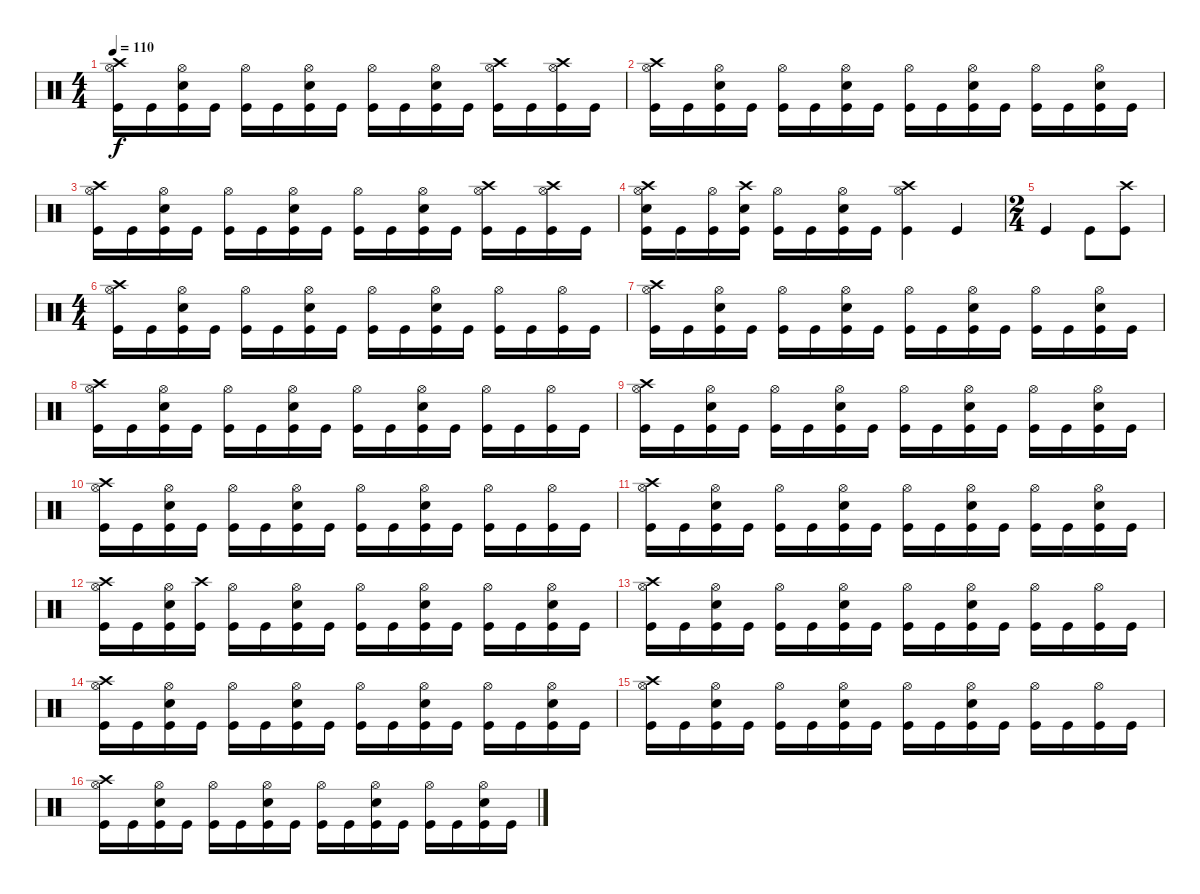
\track "" {instrument percussion}
\staff {score}
\articulation defaults
\ts (4 4)
\tempo 110
\clef neutral
\ks c
("Crash high (hit)" "Kick (hit)" "Hi-Hat (open)").16{dy f} "Kick (hit)".16 ("Kick (hit)" "Electric Snare (hit)" "Hi-Hat (open)").16 "Kick (hit)".16 ("Kick (hit)" "Hi-Hat (open)").16 "Kick (hit)".16 ("Kick (hit)" "Electric Snare (hit)" "Hi-Hat (open)").16 "Kick (hit)".16 ("Hi-Hat (open)" "Kick (hit)").16 "Kick (hit)".16 ("Kick (hit)" "Hi-Hat (open)" "Electric Snare (hit)").16 "Kick (hit)".16 ("Hi-Hat (open)" "Kick (hit)" "Crash high (hit)").16 "Kick (hit)".16 ("Kick (hit)" "Hi-Hat (open)" "Crash high (hit)").16 "Kick (hit)".16 |
("Crash high (hit)" "Kick (hit)" "Hi-Hat (open)").16 "Kick (hit)".16 ("Kick (hit)" "Electric Snare (hit)" "Hi-Hat (open)").16 "Kick (hit)".16 ("Kick (hit)" "Hi-Hat (open)").16 "Kick (hit)".16 ("Kick (hit)" "Electric Snare (hit)" "Hi-Hat (open)").16 "Kick (hit)".16 ("Hi-Hat (open)" "Kick (hit)").16 "Kick (hit)".16 ("Kick (hit)" "Hi-Hat (open)" "Electric Snare (hit)").16 "Kick (hit)".16 ("Hi-Hat (open)" "Kick (hit)").16 "Kick (hit)".16 ("Kick (hit)" "Hi-Hat (open)" "Electric Snare (hit)").16 "Kick (hit)".16 |
("Crash high (hit)" "Kick (hit)" "Hi-Hat (open)").16 "Kick (hit)".16 ("Kick (hit)" "Electric Snare (hit)" "Hi-Hat (open)").16 "Kick (hit)".16 ("Kick (hit)" "Hi-Hat (open)").16 "Kick (hit)".16 ("Kick (hit)" "Electric Snare (hit)" "Hi-Hat (open)").16 "Kick (hit)".16 ("Hi-Hat (open)" "Kick (hit)").16 "Kick (hit)".16 ("Kick (hit)" "Hi-Hat (open)" "Electric Snare (hit)").16 "Kick (hit)".16 ("Hi-Hat (open)" "Kick (hit)" "Crash high (hit)").16 "Kick (hit)".16 ("Kick (hit)" "Hi-Hat (open)" "Crash high (hit)").16 "Kick (hit)".16 |
("Crash high (hit)" "Electric Snare (hit)" "Kick (hit)" "Hi-Hat (open)").16 "Kick (hit)".16 ("Kick (hit)" "Hi-Hat (open)").16 ("Crash high (hit)" "Electric Snare (hit)" "Kick (hit)").16 ("Kick (hit)" "Hi-Hat (open)").16 "Kick (hit)".16 ("Electric Snare (hit)" "Kick (hit)" "Hi-Hat (open)").16 "Kick (hit)".16 ("Hi-Hat (open)" "Kick (hit)" "Crash high (hit)").4 "Kick (hit)".4 |
\ts (2 4)
"Kick (hit)".4 "Kick (hit)".8 ("Kick (hit)" "Crash high (hit)").8 |
\ts (4 4)
("Crash high (hit)" "Kick (hit)" "Hi-Hat (open)").16 "Kick (hit)".16 ("Kick (hit)" "Electric Snare (hit)" "Hi-Hat (open)").16 "Kick (hit)".16 ("Kick (hit)" "Hi-Hat (open)").16 "Kick (hit)".16 ("Kick (hit)" "Electric Snare (hit)" "Hi-Hat (open)").16 "Kick (hit)".16 ("Hi-Hat (open)" "Kick (hit)").16 "Kick (hit)".16 ("Kick (hit)" "Hi-Hat (open)" "Electric Snare (hit)").16 "Kick (hit)".16 ("Hi-Hat (open)" "Kick (hit)").16 "Kick (hit)".16 ("Kick (hit)" "Hi-Hat (open)").16 "Kick (hit)".16 |
("Crash high (hit)" "Kick (hit)" "Hi-Hat (open)").16 "Kick (hit)".16 ("Kick (hit)" "Electric Snare (hit)" "Hi-Hat (open)").16 "Kick (hit)".16 ("Kick (hit)" "Hi-Hat (open)").16 "Kick (hit)".16 ("Kick (hit)" "Electric Snare (hit)" "Hi-Hat (open)").16 "Kick (hit)".16 ("Hi-Hat (open)" "Kick (hit)").16 "Kick (hit)".16 ("Kick (hit)" "Hi-Hat (open)" "Electric Snare (hit)").16 "Kick (hit)".16 ("Hi-Hat (open)" "Kick (hit)").16 "Kick (hit)".16 ("Kick (hit)" "Hi-Hat (open)" "Electric Snare (hit)").16 "Kick (hit)".16 |
("Crash high (hit)" "Kick (hit)" "Hi-Hat (open)").16 "Kick (hit)".16 ("Kick (hit)" "Electric Snare (hit)" "Hi-Hat (open)").16 "Kick (hit)".16 ("Kick (hit)" "Hi-Hat (open)").16 "Kick (hit)".16 ("Kick (hit)" "Electric Snare (hit)" "Hi-Hat (open)").16 "Kick (hit)".16 ("Hi-Hat (open)" "Kick (hit)").16 "Kick (hit)".16 ("Kick (hit)" "Hi-Hat (open)" "Electric Snare (hit)").16 "Kick (hit)".16 ("Hi-Hat (open)" "Kick (hit)").16 "Kick (hit)".16 ("Kick (hit)" "Hi-Hat (open)").16 "Kick (hit)".16 |
("Crash high (hit)" "Kick (hit)" "Hi-Hat (open)").16 "Kick (hit)".16 ("Kick (hit)" "Electric Snare (hit)" "Hi-Hat (open)").16 "Kick (hit)".16 ("Kick (hit)" "Hi-Hat (open)").16 "Kick (hit)".16 ("Kick (hit)" "Electric Snare (hit)" "Hi-Hat (open)").16 "Kick (hit)".16 ("Hi-Hat (open)" "Kick (hit)").16 "Kick (hit)".16 ("Kick (hit)" "Hi-Hat (open)" "Electric Snare (hit)").16 "Kick (hit)".16 ("Hi-Hat (open)" "Kick (hit)").16 "Kick (hit)".16 ("Kick (hit)" "Hi-Hat (open)" "Electric Snare (hit)").16 "Kick (hit)".16 |
("Crash high (hit)" "Kick (hit)" "Hi-Hat (open)").16 "Kick (hit)".16 ("Kick (hit)" "Electric Snare (hit)" "Hi-Hat (open)").16 "Kick (hit)".16 ("Kick (hit)" "Hi-Hat (open)").16 "Kick (hit)".16 ("Kick (hit)" "Electric Snare (hit)" "Hi-Hat (open)").16 "Kick (hit)".16 ("Hi-Hat (open)" "Kick (hit)").16 "Kick (hit)".16 ("Kick (hit)" "Hi-Hat (open)" "Electric Snare (hit)").16 "Kick (hit)".16 ("Hi-Hat (open)" "Kick (hit)").16 "Kick (hit)".16 ("Kick (hit)" "Hi-Hat (open)").16 "Kick (hit)".16 |
("Crash high (hit)" "Kick (hit)" "Hi-Hat (open)").16 "Kick (hit)".16 ("Kick (hit)" "Electric Snare (hit)" "Hi-Hat (open)").16 "Kick (hit)".16 ("Kick (hit)" "Hi-Hat (open)").16 "Kick (hit)".16 ("Kick (hit)" "Electric Snare (hit)" "Hi-Hat (open)").16 "Kick (hit)".16 ("Hi-Hat (open)" "Kick (hit)").16 "Kick (hit)".16 ("Kick (hit)" "Hi-Hat (open)" "Electric Snare (hit)").16 "Kick (hit)".16 ("Hi-Hat (open)" "Kick (hit)").16 "Kick (hit)".16 ("Kick (hit)" "Hi-Hat (open)" "Electric Snare (hit)").16 "Kick (hit)".16 |
("Crash high (hit)" "Kick (hit)" "Hi-Hat (open)").16 "Kick (hit)".16 ("Kick (hit)" "Electric Snare (hit)" "Hi-Hat (open)").16 ("Kick (hit)" "Crash high (hit)").16 ("Kick (hit)" "Hi-Hat (open)").16 "Kick (hit)".16 ("Kick (hit)" "Electric Snare (hit)" "Hi-Hat (open)").16 "Kick (hit)".16 ("Hi-Hat (open)" "Kick (hit)").16 "Kick (hit)".16 ("Kick (hit)" "Hi-Hat (open)" "Electric Snare (hit)").16 "Kick (hit)".16 ("Hi-Hat (open)" "Kick (hit)").16 "Kick (hit)".16 ("Kick (hit)" "Hi-Hat (open)" "Electric Snare (hit)").16 "Kick (hit)".16 |
("Crash high (hit)" "Kick (hit)" "Hi-Hat (open)").16 "Kick (hit)".16 ("Kick (hit)" "Electric Snare (hit)" "Hi-Hat (open)").16 "Kick (hit)".16 ("Kick (hit)" "Hi-Hat (open)").16 "Kick (hit)".16 ("Kick (hit)" "Electric Snare (hit)" "Hi-Hat (open)").16 "Kick (hit)".16 ("Hi-Hat (open)" "Kick (hit)").16 "Kick (hit)".16 ("Kick (hit)" "Hi-Hat (open)" "Electric Snare (hit)").16 "Kick (hit)".16 ("Hi-Hat (open)" "Kick (hit)").16 "Kick (hit)".16 ("Kick (hit)" "Hi-Hat (open)").16 "Kick (hit)".16 |
("Crash high (hit)" "Kick (hit)" "Hi-Hat (open)").16 "Kick (hit)".16 ("Kick (hit)" "Electric Snare (hit)" "Hi-Hat (open)").16 "Kick (hit)".16 ("Kick (hit)" "Hi-Hat (open)").16 "Kick (hit)".16 ("Kick (hit)" "Electric Snare (hit)" "Hi-Hat (open)").16 "Kick (hit)".16 ("Hi-Hat (open)" "Kick (hit)").16 "Kick (hit)".16 ("Kick (hit)" "Hi-Hat (open)" "Electric Snare (hit)").16 "Kick (hit)".16 ("Hi-Hat (open)" "Kick (hit)").16 "Kick (hit)".16 ("Kick (hit)" "Hi-Hat (open)" "Electric Snare (hit)").16 "Kick (hit)".16 |
("Crash high (hit)" "Kick (hit)" "Hi-Hat (open)").16 "Kick (hit)".16 ("Kick (hit)" "Electric Snare (hit)" "Hi-Hat (open)").16 "Kick (hit)".16 ("Kick (hit)" "Hi-Hat (open)").16 "Kick (hit)".16 ("Kick (hit)" "Electric Snare (hit)" "Hi-Hat (open)").16 "Kick (hit)".16 ("Hi-Hat (open)" "Kick (hit)").16 "Kick (hit)".16 ("Kick (hit)" "Hi-Hat (open)" "Electric Snare (hit)").16 "Kick (hit)".16 ("Hi-Hat (open)" "Kick (hit)").16 "Kick (hit)".16 ("Kick (hit)" "Hi-Hat (open)").16 "Kick (hit)".16 |
("Crash high (hit)" "Kick (hit)" "Hi-Hat (open)").16 "Kick (hit)".16 ("Kick (hit)" "Electric Snare (hit)" "Hi-Hat (open)").16 "Kick (hit)".16 ("Kick (hit)" "Hi-Hat (open)").16 "Kick (hit)".16 ("Kick (hit)" "Electric Snare (hit)" "Hi-Hat (open)").16 "Kick (hit)".16 ("Hi-Hat (open)" "Kick (hit)").16 "Kick (hit)".16 ("Kick (hit)" "Hi-Hat (open)" "Electric Snare (hit)").16 "Kick (hit)".16 ("Hi-Hat (open)" "Kick (hit)").16 "Kick (hit)".16 ("Kick (hit)" "Hi-Hat (open)" "Electric Snare (hit)").16 "Kick (hit)".16
